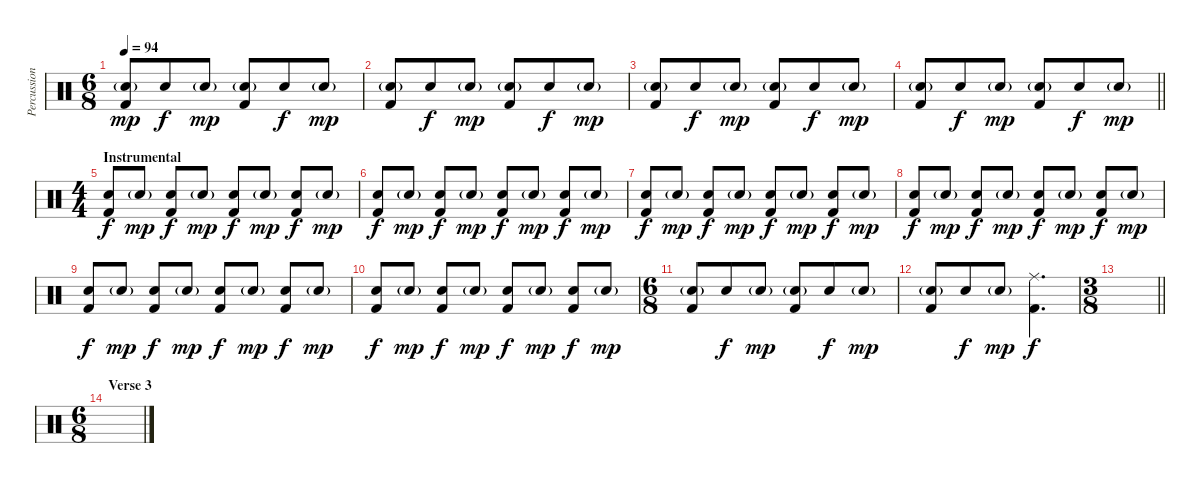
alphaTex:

\track ("Percussion" "Percussion") {instrument percussion}
\staff {score}
\articulation defaults
\ts (6 8)
\tempo 94
\clef neutral
\ks c
("Snare (hit) 2"{g} "Kick (hit) 2").8{dy mp} "Snare (hit) 2".8{dy f} "Snare (hit) 2"{g}.8{dy mp} ("Snare (hit) 2"{g} "Kick (hit) 2").8 "Snare (hit) 2".8{dy f} "Snare (hit) 2"{g}.8{dy mp} |
("Snare (hit) 2"{g} "Kick (hit) 2").8 "Snare (hit) 2".8{dy f} "Snare (hit) 2"{g}.8{dy mp} ("Snare (hit) 2"{g} "Kick (hit) 2").8 "Snare (hit) 2".8{dy f} "Snare (hit) 2"{g}.8{dy mp} |
("Snare (hit) 2"{g} "Kick (hit) 2").8 "Snare (hit) 2".8{dy f} "Snare (hit) 2"{g}.8{dy mp} ("Snare (hit) 2"{g} "Kick (hit) 2").8 "Snare (hit) 2".8{dy f} "Snare (hit) 2"{g}.8{dy mp} |
\barLineRight lightlight
("Snare (hit) 2"{g} "Kick (hit) 2").8 "Snare (hit) 2".8{dy f} "Snare (hit) 2"{g}.8{dy mp} ("Snare (hit) 2"{g} "Kick (hit) 2").8 "Snare (hit) 2".8{dy f} "Snare (hit) 2"{g}.8{dy mp} |
\ts (4 4)
\section ("" "Instrumental")
("Snare (hit) 2" "Kick (hit) 2").8{dy f} "Snare (hit) 2"{g}.8{dy mp} ("Snare (hit) 2" "Kick (hit) 2").8{dy f} "Snare (hit) 2"{g}.8{dy mp} ("Snare (hit) 2" "Kick (hit) 2").8{dy f} "Snare (hit) 2"{g}.8{dy mp} ("Snare (hit) 2" "Kick (hit) 2").8{dy f} "Snare (hit) 2"{g}.8{dy mp} |
("Snare (hit) 2" "Kick (hit) 2").8{dy f} "Snare (hit) 2"{g}.8{dy mp} ("Snare (hit) 2" "Kick (hit) 2").8{dy f} "Snare (hit) 2"{g}.8{dy mp} ("Snare (hit) 2" "Kick (hit) 2").8{dy f} "Snare (hit) 2"{g}.8{dy mp} ("Snare (hit) 2" "Kick (hit) 2").8{dy f} "Snare (hit) 2"{g}.8{dy mp} |
("Snare (hit) 2" "Kick (hit) 2").8{dy f} "Snare (hit) 2"{g}.8{dy mp} ("Snare (hit) 2" "Kick (hit) 2").8{dy f} "Snare (hit) 2"{g}.8{dy mp} ("Snare (hit) 2" "Kick (hit) 2").8{dy f} "Snare (hit) 2"{g}.8{dy mp} ("Snare (hit) 2" "Kick (hit) 2").8{dy f} "Snare (hit) 2"{g}.8{dy mp} |
("Snare (hit) 2" "Kick (hit) 2").8{dy f} "Snare (hit) 2"{g}.8{dy mp} ("Snare (hit) 2" "Kick (hit) 2").8{dy f} "Snare (hit) 2"{g}.8{dy mp} ("Snare (hit) 2" "Kick (hit) 2").8{dy f} "Snare (hit) 2"{g}.8{dy mp} ("Snare (hit) 2" "Kick (hit) 2").8{dy f} "Snare (hit) 2"{g}.8{dy mp} |
("Snare (hit) 2" "Kick (hit) 2").8{dy f} "Snare (hit) 2"{g}.8{dy mp} ("Snare (hit) 2" "Kick (hit) 2").8{dy f} "Snare (hit) 2"{g}.8{dy mp} ("Snare (hit) 2" "Kick (hit) 2").8{dy f} "Snare (hit) 2"{g}.8{dy mp} ("Snare (hit) 2" "Kick (hit) 2").8{dy f} "Snare (hit) 2"{g}.8{dy mp} |
("Snare (hit) 2" "Kick (hit) 2").8{dy f} "Snare (hit) 2"{g}.8{dy mp} ("Snare (hit) 2" "Kick (hit) 2").8{dy f} "Snare (hit) 2"{g}.8{dy mp} ("Snare (hit) 2" "Kick (hit) 2").8{dy f} "Snare (hit) 2"{g}.8{dy mp} ("Snare (hit) 2" "Kick (hit) 2").8{dy f} "Snare (hit) 2"{g}.8{dy mp} |
\ts (6 8)
("Snare (hit) 2"{g} "Kick (hit) 2").8 "Snare (hit) 2".8{dy f} "Snare (hit) 2"{g}.8{dy mp} ("Snare (hit) 2"{g} "Kick (hit) 2").8 "Snare (hit) 2".8{dy f} "Snare (hit) 2"{g}.8{dy mp} |
("Snare (hit) 2"{g} "Kick (hit) 2").8 "Snare (hit) 2".8{dy f} "Snare (hit) 2"{g}.8{dy mp} ("Ride (middle)" "Kick (hit) 2").4{d dy f} |
\ts (3 8)
\barLineRight lightlight
|
\ts (6 8)
\section ("" "Verse 3")
